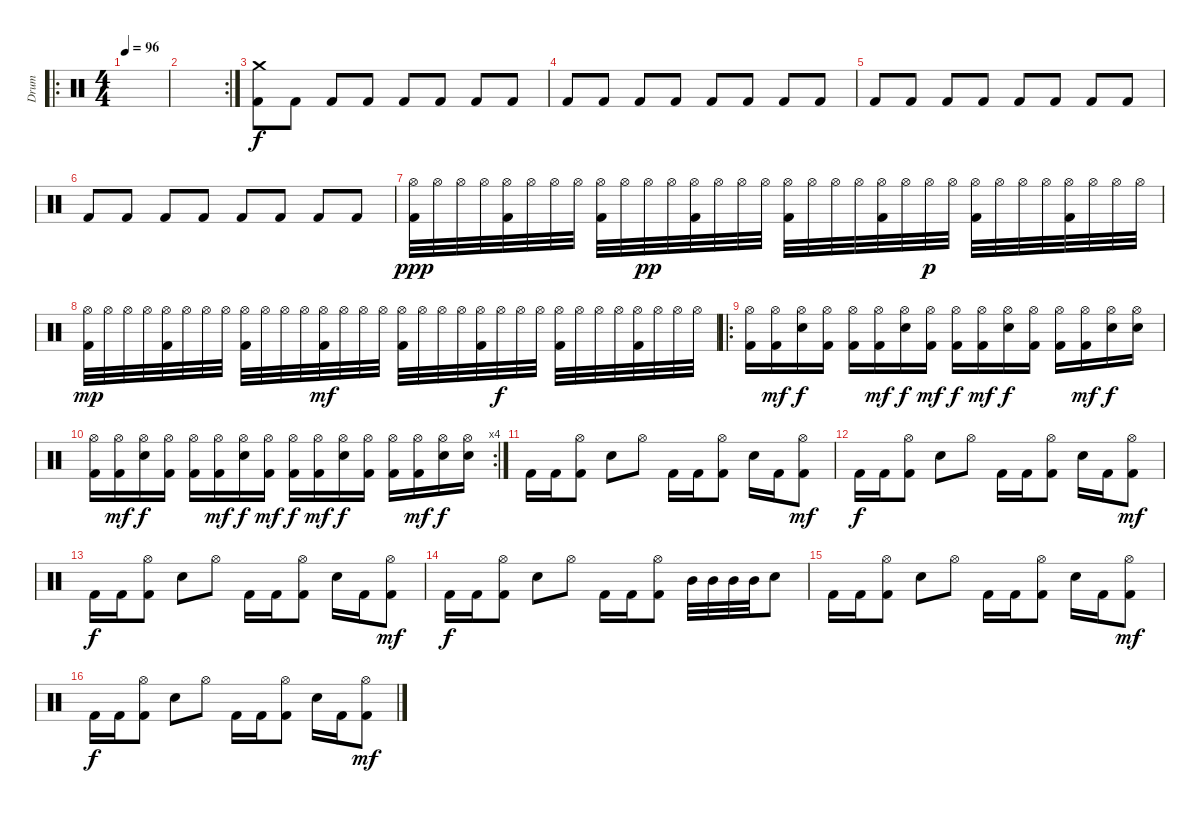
\track ("Drum" "Drum") {instrument percussion}
\staff {score}
\articulation defaults
\ro
\ts (4 4)
\tempo 96
\clef neutral
\ks c
|
\rc 2
|
("Kick (hit) 2" "Crash medium (hit)").8 "Kick (hit) 2".8 "Kick (hit) 2".8 "Kick (hit) 2".8 "Kick (hit) 2".8 "Kick (hit) 2".8 "Kick (hit) 2".8 "Kick (hit) 2".8 |
"Kick (hit) 2".8 "Kick (hit) 2".8 "Kick (hit) 2".8 "Kick (hit) 2".8 "Kick (hit) 2".8 "Kick (hit) 2".8 "Kick (hit) 2".8 "Kick (hit) 2".8 |
"Kick (hit) 2".8 "Kick (hit) 2".8 "Kick (hit) 2".8 "Kick (hit) 2".8 "Kick (hit) 2".8 "Kick (hit) 2".8 "Kick (hit) 2".8 "Kick (hit) 2".8 |
"Kick (hit) 2".8 "Kick (hit) 2".8 "Kick (hit) 2".8 "Kick (hit) 2".8 "Kick (hit) 2".8 "Kick (hit) 2".8 "Kick (hit) 2".8 "Kick (hit) 2".8 |
("Hi-Hat (open)" "Kick (hit) 2").32{dy ppp} "Hi-Hat (open)".32 "Hi-Hat (open)".32 "Hi-Hat (open)".32 ("Hi-Hat (open)" "Kick (hit) 2").32 "Hi-Hat (open)".32 "Hi-Hat (open)".32 "Hi-Hat (open)".32 ("Hi-Hat (open)" "Kick (hit) 2").32 "Hi-Hat (open)".32 "Hi-Hat (open)".32{dy pp} "Hi-Hat (open)".32 ("Hi-Hat (open)" "Kick (hit) 2").32 "Hi-Hat (open)".32 "Hi-Hat (open)".32 "Hi-Hat (open)".32 ("Hi-Hat (open)" "Kick (hit) 2").32 "Hi-Hat (open)".32 "Hi-Hat (open)".32 "Hi-Hat (open)".32 ("Hi-Hat (open)" "Kick (hit) 2").32 "Hi-Hat (open)".32 "Hi-Hat (open)".32{dy p} "Hi-Hat (open)".32 ("Hi-Hat (open)" "Kick (hit) 2").32 "Hi-Hat (open)".32 "Hi-Hat (open)".32 "Hi-Hat (open)".32 ("Hi-Hat (open)" "Kick (hit) 2").32 "Hi-Hat (open)".32 "Hi-Hat (open)".32 "Hi-Hat (open)".32 |
("Hi-Hat (open)" "Kick (hit) 2").32{dy mp} "Hi-Hat (open)".32 "Hi-Hat (open)".32 "Hi-Hat (open)".32 ("Hi-Hat (open)" "Kick (hit) 2").32 "Hi-Hat (open)".32 "Hi-Hat (open)".32 "Hi-Hat (open)".32 ("Hi-Hat (open)" "Kick (hit) 2").32 "Hi-Hat (open)".32 "Hi-Hat (open)".32 "Hi-Hat (open)".32 ("Hi-Hat (open)" "Kick (hit) 2").32{dy mf} "Hi-Hat (open)".32 "Hi-Hat (open)".32 "Hi-Hat (open)".32 ("Hi-Hat (open)" "Kick (hit) 2").32 "Hi-Hat (open)".32 "Hi-Hat (open)".32 "Hi-Hat (open)".32 ("Hi-Hat (open)" "Kick (hit) 2").32 "Hi-Hat (open)".32{dy f} "Hi-Hat (open)".32 "Hi-Hat (open)".32 ("Hi-Hat (open)" "Kick (hit) 2").32 "Hi-Hat (open)".32 "Hi-Hat (open)".32 "Hi-Hat (open)".32 ("Hi-Hat (open)" "Kick (hit) 2").32 "Hi-Hat (open)".32 "Hi-Hat (open)".32 "Hi-Hat (open)".32 |
\ro
("Kick (hit) 2" "Hi-Hat (open)").16 ("Kick (hit) 2" "Hi-Hat (open)").16{dy mf} ("Snare (hit) 2" "Hi-Hat (open)").16{dy f} ("Kick (hit) 2" "Hi-Hat (open)").16 ("Kick (hit) 2" "Hi-Hat (open)").16 ("Kick (hit) 2" "Hi-Hat (open)").16{dy mf} ("Snare (hit) 2" "Hi-Hat (open)").16{dy f} ("Kick (hit) 2" "Hi-Hat (open)").16{dy mf} ("Kick (hit) 2" "Hi-Hat (open)").16{dy f} ("Kick (hit) 2" "Hi-Hat (open)").16{dy mf} ("Snare (hit) 2" "Hi-Hat (open)").16{dy f} ("Kick (hit) 2" "Hi-Hat (open)").16 ("Kick (hit) 2" "Hi-Hat (open)").16 ("Kick (hit) 2" "Hi-Hat (open)").16{dy mf} ("Snare (hit) 2" "Hi-Hat (open)").16{dy f} ("Snare (hit) 2" "Hi-Hat (open)").16 |
\rc 4
("Kick (hit) 2" "Hi-Hat (open)").16 ("Kick (hit) 2" "Hi-Hat (open)").16{dy mf} ("Snare (hit) 2" "Hi-Hat (open)").16{dy f} ("Kick (hit) 2" "Hi-Hat (open)").16 ("Kick (hit) 2" "Hi-Hat (open)").16 ("Kick (hit) 2" "Hi-Hat (open)").16{dy mf} ("Snare (hit) 2" "Hi-Hat (open)").16{dy f} ("Kick (hit) 2" "Hi-Hat (open)").16{dy mf} ("Kick (hit) 2" "Hi-Hat (open)").16{dy f} ("Kick (hit) 2" "Hi-Hat (open)").16{dy mf} ("Snare (hit) 2" "Hi-Hat (open)").16{dy f} ("Kick (hit) 2" "Hi-Hat (open)").16 ("Kick (hit) 2" "Hi-Hat (open)").16 ("Kick (hit) 2" "Hi-Hat (open)").16{dy mf} ("Snare (hit) 2" "Hi-Hat (open)").16{dy f} ("Snare (hit) 2" "Hi-Hat (open)").16 |
"Kick (hit) 2".16 "Kick (hit) 2".16 ("Kick (hit) 2" "Hi-Hat (open)").8 "Snare (hit) 2".8 "Hi-Hat (open)".8 "Kick (hit) 2".16 "Kick (hit) 2".16 ("Kick (hit) 2" "Hi-Hat (open)").8 "Snare (hit) 2".16 "Kick (hit) 2".16 ("Kick (hit) 2" "Hi-Hat (open)").8{dy mf} |
"Kick (hit) 2".16{dy f} "Kick (hit) 2".16 ("Kick (hit) 2" "Hi-Hat (open)").8 "Snare (hit) 2".8 "Hi-Hat (open)".8 "Kick (hit) 2".16 "Kick (hit) 2".16 ("Kick (hit) 2" "Hi-Hat (open)").8 "Snare (hit) 2".16 "Kick (hit) 2".16 ("Kick (hit) 2" "Hi-Hat (open)").8{dy mf} |
"Kick (hit) 2".16{dy f} "Kick (hit) 2".16 ("Kick (hit) 2" "Hi-Hat (open)").8 "Snare (hit) 2".8 "Hi-Hat (open)".8 "Kick (hit) 2".16 "Kick (hit) 2".16 ("Kick (hit) 2" "Hi-Hat (open)").8 "Snare (hit) 2".16 "Kick (hit) 2".16 ("Kick (hit) 2" "Hi-Hat (open)").8{dy mf} |
"Kick (hit) 2".16{dy f} "Kick (hit) 2".16 ("Kick (hit) 2" "Hi-Hat (open)").8 "Snare (hit) 2".8 "Hi-Hat (open)".8 "Kick (hit) 2".16 "Kick (hit) 2".16 ("Kick (hit) 2" "Hi-Hat (open)").8 "Mid Tom (hit)".32 "Mid Tom (hit)".32 "Mid Tom (hit)".32 "Mid Tom (hit)".32 "Electric Snare (hit)".8 |
"Kick (hit) 2".16 "Kick (hit) 2".16 ("Kick (hit) 2" "Hi-Hat (open)").8 "Snare (hit) 2".8 "Hi-Hat (open)".8 "Kick (hit) 2".16 "Kick (hit) 2".16 ("Kick (hit) 2" "Hi-Hat (open)").8 "Snare (hit) 2".16 "Kick (hit) 2".16 ("Kick (hit) 2" "Hi-Hat (open)").8{dy mf} |
"Kick (hit) 2".16{dy f} "Kick (hit) 2".16 ("Kick (hit) 2" "Hi-Hat (open)").8 "Snare (hit) 2".8 "Hi-Hat (open)".8 "Kick (hit) 2".16 "Kick (hit) 2".16 ("Kick (hit) 2" "Hi-Hat (open)").8 "Snare (hit) 2".16 "Kick (hit) 2".16 ("Kick (hit) 2" "Hi-Hat (open)").8{dy mf}
